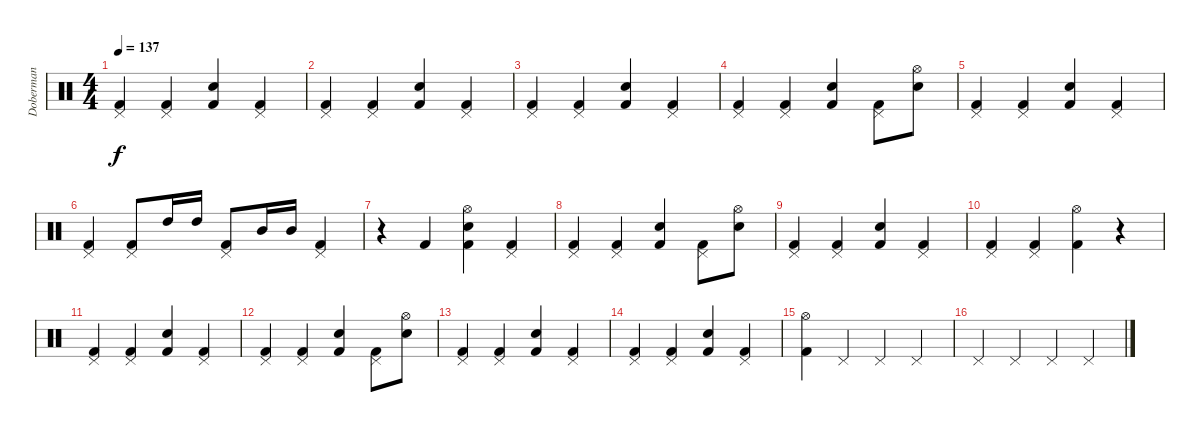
\track ("Doberman" "Doberman") {instrument percussion}
\staff {score}
\articulation defaults
\ts (4 4)
\tempo 137
\clef neutral
\ks c
("Pedal Hi-Hat (hit)" "Kick (hit) 2").4{dy f} ("Pedal Hi-Hat (hit)" "Kick (hit) 2").4 ("Snare (hit) 2" "Kick (hit) 2").4 ("Pedal Hi-Hat (hit)" "Kick (hit) 2").4 |
("Pedal Hi-Hat (hit)" "Kick (hit) 2").4 ("Pedal Hi-Hat (hit)" "Kick (hit) 2").4 ("Snare (hit) 2" "Kick (hit) 2").4 ("Pedal Hi-Hat (hit)" "Kick (hit) 2").4 |
("Pedal Hi-Hat (hit)" "Kick (hit) 2").4 ("Pedal Hi-Hat (hit)" "Kick (hit) 2").4 ("Snare (hit) 2" "Kick (hit) 2").4 ("Pedal Hi-Hat (hit)" "Kick (hit) 2").4 |
("Pedal Hi-Hat (hit)" "Kick (hit) 2").4 ("Pedal Hi-Hat (hit)" "Kick (hit) 2").4 ("Snare (hit) 2" "Kick (hit) 2").4 ("Pedal Hi-Hat (hit)" "Kick (hit) 2").8 ("Hi-Hat (open)" "Snare (hit) 2").8 |
("Pedal Hi-Hat (hit)" "Kick (hit) 2").4 ("Pedal Hi-Hat (hit)" "Kick (hit) 2").4 ("Snare (hit) 2" "Kick (hit) 2").4 ("Pedal Hi-Hat (hit)" "Kick (hit) 2").4 |
("Pedal Hi-Hat (hit)" "Kick (hit) 2").4 ("Pedal Hi-Hat (hit)" "Kick (hit) 2").8 "High Tom (hit)".16 "High Tom (hit)".16 ("Pedal Hi-Hat (hit)" "Kick (hit) 2").8 "Mid Tom (hit)".16 "Mid Tom (hit)".16 ("Pedal Hi-Hat (hit)" "Kick (hit) 2").4 |
r.4 "Kick (hit) 2".4 ("Snare (hit) 2" "Hi-Hat (open)" "Kick (hit) 2").4 ("Pedal Hi-Hat (hit)" "Kick (hit) 2").4 |
("Pedal Hi-Hat (hit)" "Kick (hit) 2").4 ("Pedal Hi-Hat (hit)" "Kick (hit) 2").4 ("Snare (hit) 2" "Kick (hit) 2").4 ("Pedal Hi-Hat (hit)" "Kick (hit) 2").8 ("Hi-Hat (open)" "Snare (hit) 2").8 |
("Pedal Hi-Hat (hit)" "Kick (hit) 2").4 ("Pedal Hi-Hat (hit)" "Kick (hit) 2").4 ("Snare (hit) 2" "Kick (hit) 2").4 ("Pedal Hi-Hat (hit)" "Kick (hit) 2").4 |
("Pedal Hi-Hat (hit)" "Kick (hit) 2").4 ("Pedal Hi-Hat (hit)" "Kick (hit) 2").4 ("Hi-Hat (open)" "Kick (hit) 2").4 r.4 |
("Pedal Hi-Hat (hit)" "Kick (hit) 2").4 ("Pedal Hi-Hat (hit)" "Kick (hit) 2").4 ("Snare (hit) 2" "Kick (hit) 2").4 ("Pedal Hi-Hat (hit)" "Kick (hit) 2").4 |
("Pedal Hi-Hat (hit)" "Kick (hit) 2").4 ("Pedal Hi-Hat (hit)" "Kick (hit) 2").4 ("Snare (hit) 2" "Kick (hit) 2").4 ("Pedal Hi-Hat (hit)" "Kick (hit) 2").8 ("Hi-Hat (open)" "Snare (hit) 2").8 |
("Pedal Hi-Hat (hit)" "Kick (hit) 2").4 ("Pedal Hi-Hat (hit)" "Kick (hit) 2").4 ("Snare (hit) 2" "Kick (hit) 2").4 ("Pedal Hi-Hat (hit)" "Kick (hit) 2").4 |
("Pedal Hi-Hat (hit)" "Kick (hit) 2").4 ("Pedal Hi-Hat (hit)" "Kick (hit) 2").4 ("Snare (hit) 2" "Kick (hit) 2").4 ("Pedal Hi-Hat (hit)" "Kick (hit) 2").4 |
("Hi-Hat (open)" "Kick (hit) 2").4 "Pedal Hi-Hat (hit)".4 "Pedal Hi-Hat (hit)".4 "Pedal Hi-Hat (hit)".4 |
"Pedal Hi-Hat (hit)".4 "Pedal Hi-Hat (hit)".4 "Pedal Hi-Hat (hit)".4 "Pedal Hi-Hat (hit)".4
